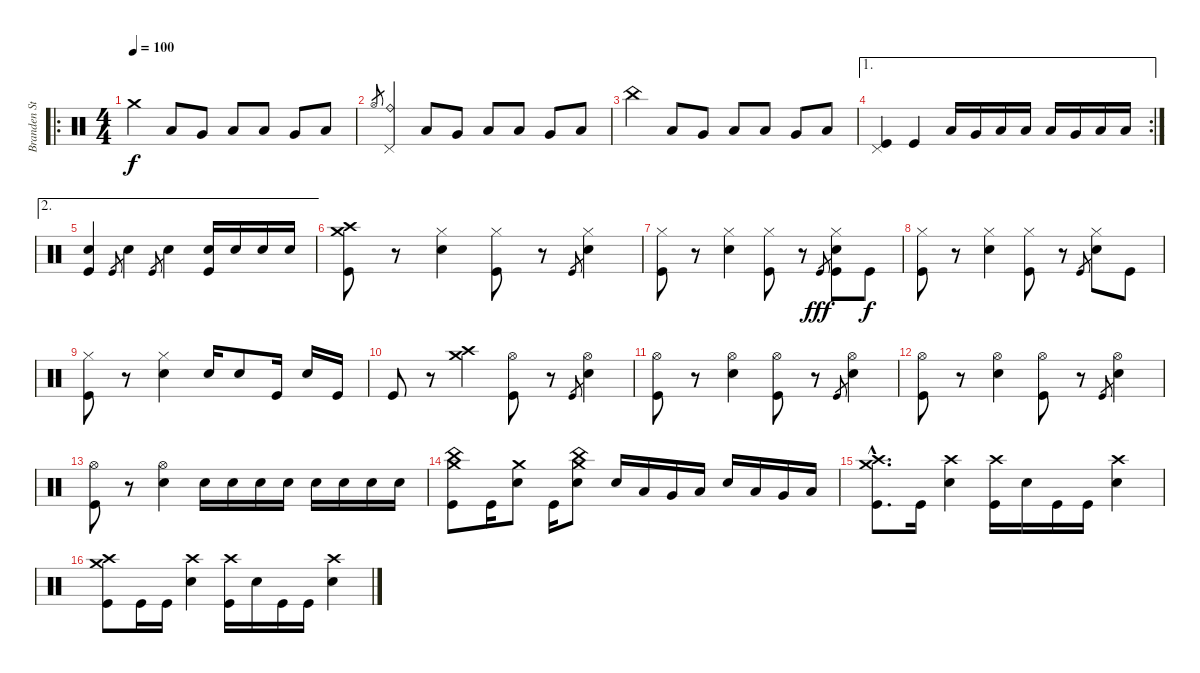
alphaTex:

\track ("Branden Steineckert-drums" "Branden St") {instrument percussion}
\staff {score}
\articulation defaults
\ro
\ts (4 4)
\tempo 100
\clef neutral
\ks c "Crash medium (hit)".4{dy f} "Low Tom (hit)".8 "Very Low Tom (hit)".8 "Low Floor Tom (hit)".8 "Low Tom (hit)".8 "Very Low Tom (hit)".8 "Low Floor Tom (hit)".8
|
"Hi-Hat (open)".8{gr} ("Pedal Hi-Hat (hit)" "Ride (bell)").4 "Low Tom (hit)".8 "Very Low Tom (hit)".8 "Low Floor Tom (hit)".8 "Low Tom (hit)".8 "Very Low Tom (hit)".8 "Low Floor Tom (hit)".8 |
"China (hit)".4 "Low Tom (hit)".8 "Very Low Tom (hit)".8 "Low Floor Tom (hit)".8 "Low Tom (hit)".8 "Very Low Tom (hit)".8 "Low Floor Tom (hit)".8 |
\ae 1
\rc 2
("Pedal Hi-Hat (hit)" "Kick (hit)").4 "Kick (hit)".4 "Low Tom (hit)".16 "Very Low Tom (hit)".16 "Low Floor Tom (hit)".16 "Low Floor Tom (hit)".16 "Low Tom (hit)".16 "Very Low Tom (hit)".16 "Low Floor Tom (hit)".16 "Low Floor Tom (hit)".16 |
\ae 2
("Snare (hit) 2" "Kick (hit)").4 "Kick (hit)".8{gr} "Snare (hit) 2".4 "Kick (hit)".8{gr} "Snare (hit) 2".4 ("Snare (hit) 2" "Kick (hit)").16 "Snare (hit) 2".16 "Snare (hit) 2".16 "Snare (hit) 2".16 |
("Crash medium (hit)" "Crash high (hit)" "Kick (hit)").8 r.8 ("Hi-Hat (closed)" "Snare (hit) 2").4 ("Hi-Hat (closed)" "Kick (hit)").8 r.8 "Kick (hit)".8{gr} ("Hi-Hat (closed)" "Snare (hit) 2").4 |
("Hi-Hat (closed)" "Kick (hit)").8 r.8 ("Hi-Hat (closed)" "Snare (hit) 2").4 ("Hi-Hat (closed)" "Kick (hit)").8 r.8 "Kick (hit)".8{gr dy fff} ("Hi-Hat (closed)" "Snare (hit) 2" "Kick (hit)").8 "Kick (hit)".8{dy f} |
("Hi-Hat (closed)" "Kick (hit)").8 r.8 ("Hi-Hat (closed)" "Snare (hit) 2").4 ("Hi-Hat (closed)" "Kick (hit)").8 r.8 "Kick (hit)".8{gr} ("Hi-Hat (closed)" "Snare (hit) 2").8 "Kick (hit)".8 |
("Hi-Hat (closed)" "Kick (hit)").8 r.8 ("Hi-Hat (closed)" "Snare (hit) 2").4 "Snare (hit) 2".16 "Snare (hit) 2".8 "Kick (hit)".16 "Snare (hit) 2".16 "Kick (hit)".16 |
"Kick (hit)".8 r.8 ("Crash medium (hit)" "Crash high (hit)").4 ("Hi-Hat (open)" "Kick (hit)").8 r.8 "Kick (hit)".8{gr} ("Hi-Hat (open)" "Snare (hit) 2").4 |
("Hi-Hat (open)" "Kick (hit)").8 r.8 ("Hi-Hat (open)" "Snare (hit) 2").4 ("Hi-Hat (open)" "Kick (hit)").8 r.8 "Kick (hit)".8{gr} ("Hi-Hat (open)" "Snare (hit) 2").4 |
("Hi-Hat (open)" "Kick (hit)").8 r.8 ("Hi-Hat (open)" "Snare (hit) 2").4 ("Hi-Hat (open)" "Kick (hit)").8 r.8 "Kick (hit)".8{gr} ("Hi-Hat (open)" "Snare (hit) 2").4 |
("Hi-Hat (open)" "Kick (hit)").8 r.8 ("Hi-Hat (open)" "Snare (hit) 2").4 "Snare (hit) 2".16 "Snare (hit) 2".16 "Snare (hit) 2".16 "Snare (hit) 2".16 "Snare (hit) 2".16 "Snare (hit) 2".16 "Snare (hit) 2".16 "Snare (hit) 2".16 |
("China (hit)" "Crash medium (hit)" "Kick (hit)").8 "Kick (hit)".16 ("Crash medium (hit)" "Snare (hit) 2").8 "Kick (hit)".16 ("China (hit)" "Crash medium (hit)" "Snare (hit) 2").8 "Snare (hit) 2".16 "Low Tom (hit)".16 "Very Low Tom (hit)".16 "Low Floor Tom (hit)".16 "Snare (hit) 2".16 "Low Tom (hit)".16 "Very Low Tom (hit)".16 "Low Floor Tom (hit)".16 |
("Crash medium (hit)"{hac} "Crash high (hit)"{hac} "Kick (hit)"{hac}).8{d} "Kick (hit)".16 ("Crash high (hit)" "Snare (hit) 2").4 ("Crash high (hit)" "Kick (hit)").16 "Snare (hit) 2".16 "Kick (hit)".16 "Kick (hit)".16 ("Crash high (hit)" "Snare (hit) 2").4 |
("Crash medium (hit)" "Crash high (hit)" "Kick (hit)").8 "Kick (hit)".16 "Kick (hit)".16 ("Crash high (hit)" "Snare (hit) 2").4 ("Crash high (hit)" "Kick (hit)").16 "Snare (hit) 2".16 "Kick (hit)".16 "Kick (hit)".16 ("Crash high (hit)" "Snare (hit) 2").4
